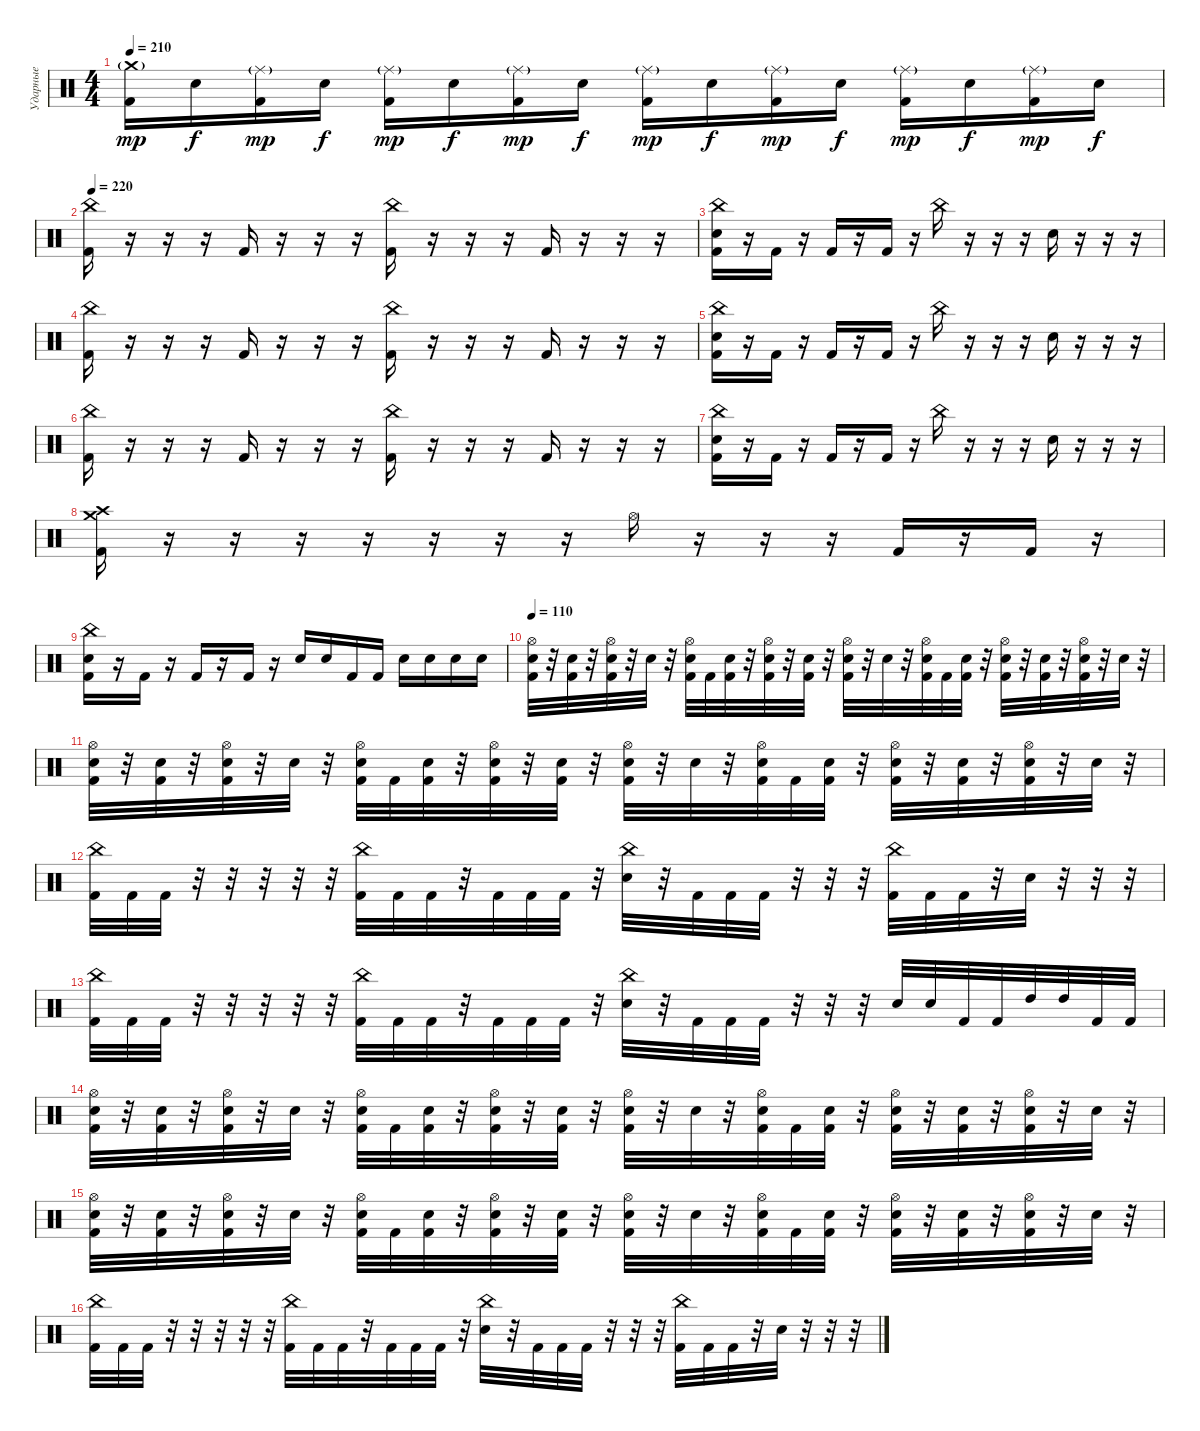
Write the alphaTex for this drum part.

\track ("Ударные" "Ударные") {instrument percussion}
\staff {score}
\articulation defaults
\ts (4 4)
\tempo 210
\clef neutral
\ks c
("Crash medium (hit)"{g} "Kick (hit) 2").16{dy mp} "Electric Snare (hit)".16{dy f} ("Ride (middle)"{g} "Kick (hit) 2").16{dy mp} "Electric Snare (hit)".16{dy f} ("Ride (middle)"{g} "Kick (hit) 2").16{dy mp} "Electric Snare (hit)".16{dy f} ("Ride (middle)"{g} "Kick (hit) 2").16{dy mp} "Electric Snare (hit)".16{dy f} ("Ride (middle)"{g} "Kick (hit) 2").16{dy mp} "Electric Snare (hit)".16{dy f} ("Ride (middle)"{g} "Kick (hit) 2").16{dy mp} "Electric Snare (hit)".16{dy f} ("Ride (middle)"{g} "Kick (hit) 2").16{dy mp} "Electric Snare (hit)".16{dy f} ("Ride (middle)"{g} "Kick (hit) 2").16{dy mp} "Electric Snare (hit)".16{dy f} |
\tempo 220
("China (hit)" "Kick (hit) 2").16 r.16 r.16 r.16 "Kick (hit) 2".16 r.16 r.16 r.16 ("China (hit)" "Kick (hit) 2").16 r.16 r.16 r.16 "Kick (hit) 2".16 r.16 r.16 r.16 |
("China (hit)" "Electric Snare (hit)" "Kick (hit) 2").16 r.16 "Kick (hit) 2".16 r.16 "Kick (hit) 2".16 r.16 "Kick (hit) 2".16 r.16 "China (hit)".16 r.16 r.16 r.16 "Electric Snare (hit)".16 r.16 r.16 r.16 |
("China (hit)" "Kick (hit) 2").16 r.16 r.16 r.16 "Kick (hit) 2".16 r.16 r.16 r.16 ("China (hit)" "Kick (hit) 2").16 r.16 r.16 r.16 "Kick (hit) 2".16 r.16 r.16 r.16 |
("China (hit)" "Electric Snare (hit)" "Kick (hit) 2").16 r.16 "Kick (hit) 2".16 r.16 "Kick (hit) 2".16 r.16 "Kick (hit) 2".16 r.16 "China (hit)".16 r.16 r.16 r.16 "Electric Snare (hit)".16 r.16 r.16 r.16 |
("China (hit)" "Kick (hit) 2").16 r.16 r.16 r.16 "Kick (hit) 2".16 r.16 r.16 r.16 ("China (hit)" "Kick (hit) 2").16 r.16 r.16 r.16 "Kick (hit) 2".16 r.16 r.16 r.16 |
("China (hit)" "Electric Snare (hit)" "Kick (hit) 2").16 r.16 "Kick (hit) 2".16 r.16 "Kick (hit) 2".16 r.16 "Kick (hit) 2".16 r.16 "China (hit)".16 r.16 r.16 r.16 "Electric Snare (hit)".16 r.16 r.16 r.16 |
("Crash high (hit)" "Crash medium (hit)" "Kick (hit) 2").16 r.16 r.16 r.16 r.16 r.16 r.16 r.16 "Hi-Hat (open)".16 r.16 r.16 r.16 "Kick (hit) 2".16 r.16 "Kick (hit) 2".16 r.16 |
("China (hit)" "Electric Snare (hit)" "Kick (hit) 2").16 r.16 "Kick (hit) 2".16 r.16 "Kick (hit) 2".16 r.16 "Kick (hit) 2".16 r.16 "Electric Snare (hit)".16 "Electric Snare (hit)".16 "Kick (hit) 2".16 "Kick (hit) 2".16 "Electric Snare (hit)".16 "Electric Snare (hit)".16 "Electric Snare (hit)".16 "Electric Snare (hit)".16 |
\tempo 110
("Electric Snare (hit)" "Kick (hit) 2" "Hi-Hat (open)").32 r.32 ("Electric Snare (hit)" "Kick (hit) 2").32 r.32 ("Electric Snare (hit)" "Kick (hit) 2" "Hi-Hat (open)").32 r.32 "Electric Snare (hit)".32 r.32 ("Electric Snare (hit)" "Kick (hit) 2" "Hi-Hat (open)").32 "Kick (hit) 2".32 ("Electric Snare (hit)" "Kick (hit) 2").32 r.32 ("Electric Snare (hit)" "Kick (hit) 2" "Hi-Hat (open)").32 r.32 ("Electric Snare (hit)" "Kick (hit) 2").32 r.32 ("Electric Snare (hit)" "Kick (hit) 2" "Hi-Hat (open)").32 r.32 "Electric Snare (hit)".32 r.32 ("Electric Snare (hit)" "Kick (hit) 2" "Hi-Hat (open)").32 "Kick (hit) 2".32 ("Electric Snare (hit)" "Kick (hit) 2").32 r.32 ("Electric Snare (hit)" "Kick (hit) 2" "Hi-Hat (open)").32 r.32 ("Electric Snare (hit)" "Kick (hit) 2").32 r.32 ("Electric Snare (hit)" "Kick (hit) 2" "Hi-Hat (open)").32 r.32 "Electric Snare (hit)".32 r.32 |
("Electric Snare (hit)" "Kick (hit) 2" "Hi-Hat (open)").32 r.32 ("Electric Snare (hit)" "Kick (hit) 2").32 r.32 ("Electric Snare (hit)" "Kick (hit) 2" "Hi-Hat (open)").32 r.32 "Electric Snare (hit)".32 r.32 ("Electric Snare (hit)" "Kick (hit) 2" "Hi-Hat (open)").32 "Kick (hit) 2".32 ("Electric Snare (hit)" "Kick (hit) 2").32 r.32 ("Electric Snare (hit)" "Kick (hit) 2" "Hi-Hat (open)").32 r.32 ("Electric Snare (hit)" "Kick (hit) 2").32 r.32 ("Electric Snare (hit)" "Kick (hit) 2" "Hi-Hat (open)").32 r.32 "Electric Snare (hit)".32 r.32 ("Electric Snare (hit)" "Kick (hit) 2" "Hi-Hat (open)").32 "Kick (hit) 2".32 ("Electric Snare (hit)" "Kick (hit) 2").32 r.32 ("Electric Snare (hit)" "Kick (hit) 2" "Hi-Hat (open)").32 r.32 ("Electric Snare (hit)" "Kick (hit) 2").32 r.32 ("Electric Snare (hit)" "Kick (hit) 2" "Hi-Hat (open)").32 r.32 "Electric Snare (hit)".32 r.32 |
("Kick (hit) 2" "China (hit)").32 "Kick (hit) 2".32 "Kick (hit) 2".32 r.32 r.32 r.32 r.32 r.32 ("Kick (hit) 2" "China (hit)").32 "Kick (hit) 2".32 "Kick (hit) 2".32 r.32 "Kick (hit) 2".32 "Kick (hit) 2".32 "Kick (hit) 2".32 r.32 ("Electric Snare (hit)" "China (hit)").32 r.32 "Kick (hit) 2".32 "Kick (hit) 2".32 "Kick (hit) 2".32 r.32 r.32 r.32 ("Kick (hit) 2" "China (hit)").32 "Kick (hit) 2".32 "Kick (hit) 2".32 r.32 "Electric Snare (hit)".32 r.32 r.32 r.32 |
("Kick (hit) 2" "China (hit)").32 "Kick (hit) 2".32 "Kick (hit) 2".32 r.32 r.32 r.32 r.32 r.32 ("Kick (hit) 2" "China (hit)").32 "Kick (hit) 2".32 "Kick (hit) 2".32 r.32 "Kick (hit) 2".32 "Kick (hit) 2".32 "Kick (hit) 2".32 r.32 ("Electric Snare (hit)" "China (hit)").32 r.32 "Kick (hit) 2".32 "Kick (hit) 2".32 "Kick (hit) 2".32 r.32 r.32 r.32 "Electric Snare (hit)".32 "Electric Snare (hit)".32 "Kick (hit) 2".32 "Kick (hit) 2".32 "High Tom (hit)".32 "High Tom (hit)".32 "Kick (hit) 2".32 "Kick (hit) 2".32 |
("Electric Snare (hit)" "Kick (hit) 2" "Hi-Hat (open)").32 r.32 ("Electric Snare (hit)" "Kick (hit) 2").32 r.32 ("Electric Snare (hit)" "Kick (hit) 2" "Hi-Hat (open)").32 r.32 "Electric Snare (hit)".32 r.32 ("Electric Snare (hit)" "Kick (hit) 2" "Hi-Hat (open)").32 "Kick (hit) 2".32 ("Electric Snare (hit)" "Kick (hit) 2").32 r.32 ("Electric Snare (hit)" "Kick (hit) 2" "Hi-Hat (open)").32 r.32 ("Electric Snare (hit)" "Kick (hit) 2").32 r.32 ("Electric Snare (hit)" "Kick (hit) 2" "Hi-Hat (open)").32 r.32 "Electric Snare (hit)".32 r.32 ("Electric Snare (hit)" "Kick (hit) 2" "Hi-Hat (open)").32 "Kick (hit) 2".32 ("Electric Snare (hit)" "Kick (hit) 2").32 r.32 ("Electric Snare (hit)" "Kick (hit) 2" "Hi-Hat (open)").32 r.32 ("Electric Snare (hit)" "Kick (hit) 2").32 r.32 ("Electric Snare (hit)" "Kick (hit) 2" "Hi-Hat (open)").32 r.32 "Electric Snare (hit)".32 r.32 |
("Electric Snare (hit)" "Kick (hit) 2" "Hi-Hat (open)").32 r.32 ("Electric Snare (hit)" "Kick (hit) 2").32 r.32 ("Electric Snare (hit)" "Kick (hit) 2" "Hi-Hat (open)").32 r.32 "Electric Snare (hit)".32 r.32 ("Electric Snare (hit)" "Kick (hit) 2" "Hi-Hat (open)").32 "Kick (hit) 2".32 ("Electric Snare (hit)" "Kick (hit) 2").32 r.32 ("Electric Snare (hit)" "Kick (hit) 2" "Hi-Hat (open)").32 r.32 ("Electric Snare (hit)" "Kick (hit) 2").32 r.32 ("Electric Snare (hit)" "Kick (hit) 2" "Hi-Hat (open)").32 r.32 "Electric Snare (hit)".32 r.32 ("Electric Snare (hit)" "Kick (hit) 2" "Hi-Hat (open)").32 "Kick (hit) 2".32 ("Electric Snare (hit)" "Kick (hit) 2").32 r.32 ("Electric Snare (hit)" "Kick (hit) 2" "Hi-Hat (open)").32 r.32 ("Electric Snare (hit)" "Kick (hit) 2").32 r.32 ("Electric Snare (hit)" "Kick (hit) 2" "Hi-Hat (open)").32 r.32 "Electric Snare (hit)".32 r.32 |
("Kick (hit) 2" "China (hit)").32 "Kick (hit) 2".32 "Kick (hit) 2".32 r.32 r.32 r.32 r.32 r.32 ("Kick (hit) 2" "China (hit)").32 "Kick (hit) 2".32 "Kick (hit) 2".32 r.32 "Kick (hit) 2".32 "Kick (hit) 2".32 "Kick (hit) 2".32 r.32 ("Electric Snare (hit)" "China (hit)").32 r.32 "Kick (hit) 2".32 "Kick (hit) 2".32 "Kick (hit) 2".32 r.32 r.32 r.32 ("Kick (hit) 2" "China (hit)").32 "Kick (hit) 2".32 "Kick (hit) 2".32 r.32 "Electric Snare (hit)".32 r.32 r.32 r.32
